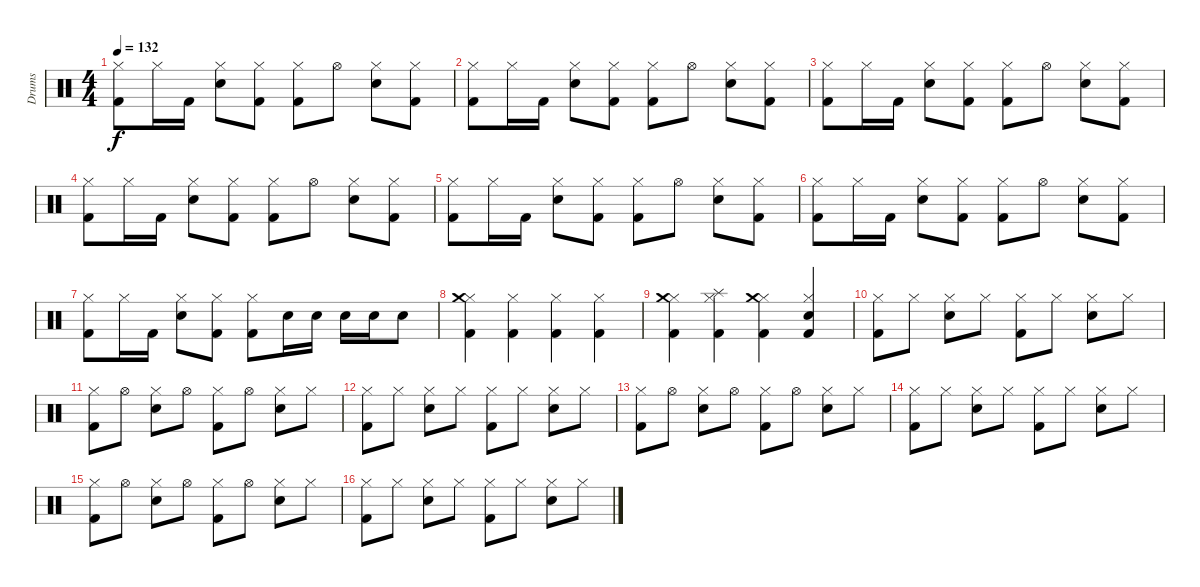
\track ("Drums" "Drums") {instrument percussion}
\staff {score}
\articulation defaults
\ts (4 4)
\tempo 132
\clef neutral
\ks c
("Kick (hit) 2" "Hi-Hat (closed)").8{dy f} "Hi-Hat (closed)".16 "Kick (hit) 2".16 ("Electric Snare (hit)" "Hi-Hat (closed)").8 ("Kick (hit) 2" "Hi-Hat (closed)").8 ("Kick (hit) 2" "Hi-Hat (closed)").8 "Hi-Hat (open)".8 ("Electric Snare (hit)" "Hi-Hat (closed)").8 ("Kick (hit) 2" "Hi-Hat (closed)").8 |
("Kick (hit) 2" "Hi-Hat (closed)").8 "Hi-Hat (closed)".16 "Kick (hit) 2".16 ("Electric Snare (hit)" "Hi-Hat (closed)").8 ("Kick (hit) 2" "Hi-Hat (closed)").8 ("Kick (hit) 2" "Hi-Hat (closed)").8 "Hi-Hat (open)".8 ("Electric Snare (hit)" "Hi-Hat (closed)").8 ("Kick (hit) 2" "Hi-Hat (closed)").8 |
("Kick (hit) 2" "Hi-Hat (closed)").8 "Hi-Hat (closed)".16 "Kick (hit) 2".16 ("Electric Snare (hit)" "Hi-Hat (closed)").8 ("Kick (hit) 2" "Hi-Hat (closed)").8 ("Kick (hit) 2" "Hi-Hat (closed)").8 "Hi-Hat (open)".8 ("Electric Snare (hit)" "Hi-Hat (closed)").8 ("Kick (hit) 2" "Hi-Hat (closed)").8 |
("Kick (hit) 2" "Hi-Hat (closed)").8 "Hi-Hat (closed)".16 "Kick (hit) 2".16 ("Electric Snare (hit)" "Hi-Hat (closed)").8 ("Kick (hit) 2" "Hi-Hat (closed)").8 ("Kick (hit) 2" "Hi-Hat (closed)").8 "Hi-Hat (open)".8 ("Electric Snare (hit)" "Hi-Hat (closed)").8 ("Kick (hit) 2" "Hi-Hat (closed)").8 |
("Kick (hit) 2" "Hi-Hat (closed)").8 "Hi-Hat (closed)".16 "Kick (hit) 2".16 ("Electric Snare (hit)" "Hi-Hat (closed)").8 ("Kick (hit) 2" "Hi-Hat (closed)").8 ("Kick (hit) 2" "Hi-Hat (closed)").8 "Hi-Hat (open)".8 ("Electric Snare (hit)" "Hi-Hat (closed)").8 ("Kick (hit) 2" "Hi-Hat (closed)").8 |
("Kick (hit) 2" "Hi-Hat (closed)").8 "Hi-Hat (closed)".16 "Kick (hit) 2".16 ("Electric Snare (hit)" "Hi-Hat (closed)").8 ("Kick (hit) 2" "Hi-Hat (closed)").8 ("Kick (hit) 2" "Hi-Hat (closed)").8 "Hi-Hat (open)".8 ("Electric Snare (hit)" "Hi-Hat (closed)").8 ("Kick (hit) 2" "Hi-Hat (closed)").8 |
("Kick (hit) 2" "Hi-Hat (closed)").8 "Hi-Hat (closed)".16 "Kick (hit) 2".16 ("Electric Snare (hit)" "Hi-Hat (closed)").8 ("Kick (hit) 2" "Hi-Hat (closed)").8 ("Kick (hit) 2" "Hi-Hat (closed)").8 "Electric Snare (hit)".16 "Electric Snare (hit)".16 "Electric Snare (hit)".16 "Electric Snare (hit)".16 "Electric Snare (hit)".8 |
("Kick (hit) 2" "Hi-Hat (closed)" "Crash medium (hit)").4 ("Kick (hit) 2" "Hi-Hat (closed)").4 ("Kick (hit) 2" "Hi-Hat (closed)").4 ("Kick (hit) 2" "Hi-Hat (closed)").4 |
("Kick (hit) 2" "Hi-Hat (closed)" "Crash medium (hit)").4 ("Kick (hit) 2" "Hi-Hat (closed)" "Splash (hit)").4 ("Kick (hit) 2" "Hi-Hat (closed)" "Crash medium (hit)").4 ("Kick (hit) 2" "Electric Snare (hit)" "Hi-Hat (closed)").4 |
("Kick (hit) 2" "Hi-Hat (closed)").8 "Hi-Hat (closed)".8 ("Electric Snare (hit)" "Hi-Hat (closed)").8 "Hi-Hat (closed)".8 ("Kick (hit) 2" "Hi-Hat (closed)").8 "Hi-Hat (closed)".8 ("Electric Snare (hit)" "Hi-Hat (closed)").8 "Hi-Hat (closed)".8 |
("Kick (hit) 2" "Hi-Hat (closed)").8 "Hi-Hat (open)".8 ("Electric Snare (hit)" "Hi-Hat (closed)").8 "Hi-Hat (open)".8 ("Kick (hit) 2" "Hi-Hat (closed)").8 "Hi-Hat (open)".8 ("Electric Snare (hit)" "Hi-Hat (closed)").8 "Hi-Hat (closed)".8 |
("Kick (hit) 2" "Hi-Hat (closed)").8 "Hi-Hat (closed)".8 ("Electric Snare (hit)" "Hi-Hat (closed)").8 "Hi-Hat (closed)".8 ("Kick (hit) 2" "Hi-Hat (closed)").8 "Hi-Hat (closed)".8 ("Electric Snare (hit)" "Hi-Hat (closed)").8 "Hi-Hat (closed)".8 |
("Kick (hit) 2" "Hi-Hat (closed)").8 "Hi-Hat (open)".8 ("Electric Snare (hit)" "Hi-Hat (closed)").8 "Hi-Hat (open)".8 ("Kick (hit) 2" "Hi-Hat (closed)").8 "Hi-Hat (open)".8 ("Electric Snare (hit)" "Hi-Hat (closed)").8 "Hi-Hat (closed)".8 |
("Kick (hit) 2" "Hi-Hat (closed)").8 "Hi-Hat (closed)".8 ("Electric Snare (hit)" "Hi-Hat (closed)").8 "Hi-Hat (closed)".8 ("Kick (hit) 2" "Hi-Hat (closed)").8 "Hi-Hat (closed)".8 ("Electric Snare (hit)" "Hi-Hat (closed)").8 "Hi-Hat (closed)".8 |
("Kick (hit) 2" "Hi-Hat (closed)").8 "Hi-Hat (open)".8 ("Electric Snare (hit)" "Hi-Hat (closed)").8 "Hi-Hat (open)".8 ("Kick (hit) 2" "Hi-Hat (closed)").8 "Hi-Hat (open)".8 ("Electric Snare (hit)" "Hi-Hat (closed)").8 "Hi-Hat (closed)".8 |
("Kick (hit) 2" "Hi-Hat (closed)").8 "Hi-Hat (closed)".8 ("Electric Snare (hit)" "Hi-Hat (closed)").8 "Hi-Hat (closed)".8 ("Kick (hit) 2" "Hi-Hat (closed)").8 "Hi-Hat (closed)".8 ("Electric Snare (hit)" "Hi-Hat (closed)").8 "Hi-Hat (closed)".8
